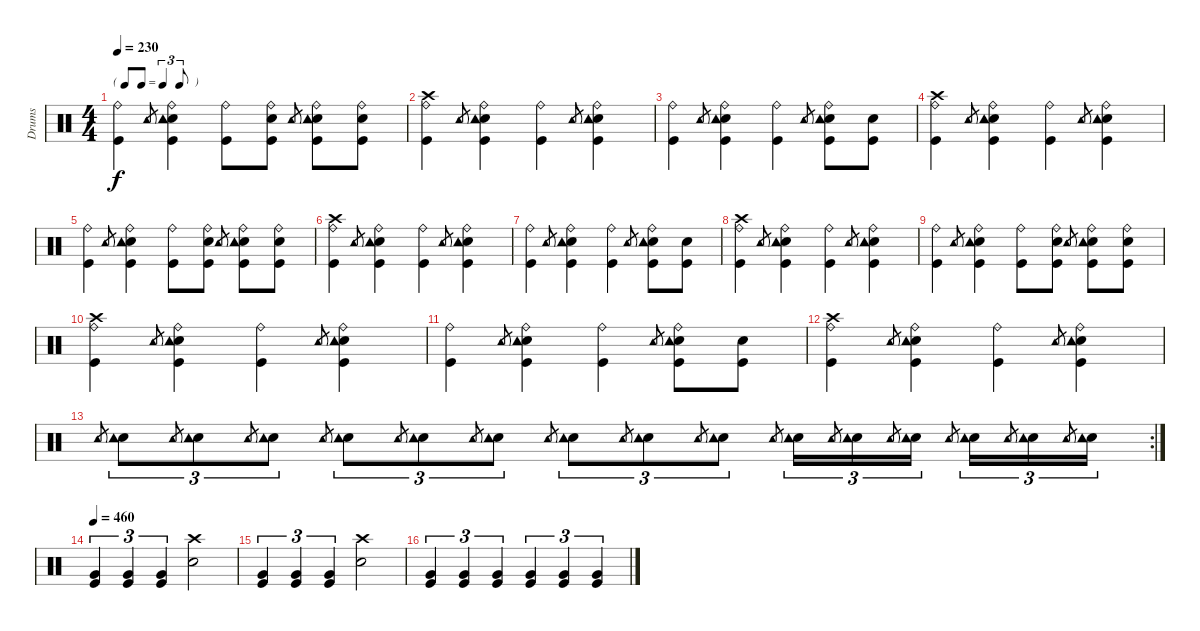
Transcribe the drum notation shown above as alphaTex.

\track ("Drums" "Drums") {instrument percussion}
\staff {score}
\articulation defaults
\ts (4 4)
\tf triplet8th
\tempo 230
\clef neutral
\ks c
("Ride (bell)" "Kick (hit)").4{dy f} "Tambourine (hit)".8{gr} ("Ride (bell)" "Electric Snare (hit)" "Kick (hit)" "Tambourine (hit)").4 ("Ride (bell)" "Kick (hit)").8 ("Ride (bell)" "Electric Snare (hit)" "Kick (hit)").8 "Tambourine (hit)".8{gr} ("Ride (bell)" "Electric Snare (hit)" "Kick (hit)" "Tambourine (hit)").8 ("Ride (bell)" "Electric Snare (hit)" "Kick (hit)").8 |
("Crash high (hit)" "Ride (bell)" "Kick (hit)").4 "Tambourine (hit)".8{gr} ("Ride (bell)" "Electric Snare (hit)" "Kick (hit)" "Tambourine (hit)").4 ("Ride (bell)" "Kick (hit)").4 "Tambourine (hit)".8{gr} ("Ride (bell)" "Electric Snare (hit)" "Kick (hit)" "Tambourine (hit)").4 |
("Ride (bell)" "Kick (hit)").4 "Tambourine (hit)".8{gr} ("Ride (bell)" "Electric Snare (hit)" "Kick (hit)" "Tambourine (hit)").4 ("Ride (bell)" "Kick (hit)").4 "Tambourine (hit)".8{gr} ("Ride (bell)" "Electric Snare (hit)" "Kick (hit)" "Tambourine (hit)").8 ("Electric Snare (hit)" "Kick (hit)").8 |
("Crash high (hit)" "Ride (bell)" "Kick (hit)").4 "Tambourine (hit)".8{gr} ("Ride (bell)" "Electric Snare (hit)" "Kick (hit)" "Tambourine (hit)").4 ("Ride (bell)" "Kick (hit)").4 "Tambourine (hit)".8{gr} ("Ride (bell)" "Electric Snare (hit)" "Kick (hit)" "Tambourine (hit)").4 |
("Ride (bell)" "Kick (hit)").4 "Tambourine (hit)".8{gr} ("Ride (bell)" "Electric Snare (hit)" "Kick (hit)" "Tambourine (hit)").4 ("Ride (bell)" "Kick (hit)").8 ("Ride (bell)" "Electric Snare (hit)" "Kick (hit)").8 "Tambourine (hit)".8{gr} ("Ride (bell)" "Electric Snare (hit)" "Kick (hit)" "Tambourine (hit)").8 ("Ride (bell)" "Electric Snare (hit)" "Kick (hit)").8 |
("Crash high (hit)" "Ride (bell)" "Kick (hit)").4 "Tambourine (hit)".8{gr} ("Ride (bell)" "Electric Snare (hit)" "Kick (hit)" "Tambourine (hit)").4 ("Ride (bell)" "Kick (hit)").4 "Tambourine (hit)".8{gr} ("Ride (bell)" "Electric Snare (hit)" "Kick (hit)" "Tambourine (hit)").4 |
("Ride (bell)" "Kick (hit)").4 "Tambourine (hit)".8{gr} ("Ride (bell)" "Electric Snare (hit)" "Kick (hit)" "Tambourine (hit)").4 ("Ride (bell)" "Kick (hit)").4 "Tambourine (hit)".8{gr} ("Ride (bell)" "Electric Snare (hit)" "Kick (hit)" "Tambourine (hit)").8 ("Electric Snare (hit)" "Kick (hit)").8 |
("Crash high (hit)" "Ride (bell)" "Kick (hit)").4 "Tambourine (hit)".8{gr} ("Ride (bell)" "Electric Snare (hit)" "Kick (hit)" "Tambourine (hit)").4 ("Ride (bell)" "Kick (hit)").4 "Tambourine (hit)".8{gr} ("Ride (bell)" "Electric Snare (hit)" "Kick (hit)" "Tambourine (hit)").4 |
("Ride (bell)" "Kick (hit)").4 "Tambourine (hit)".8{gr} ("Ride (bell)" "Electric Snare (hit)" "Kick (hit)" "Tambourine (hit)").4 ("Ride (bell)" "Kick (hit)").8 ("Ride (bell)" "Electric Snare (hit)" "Kick (hit)").8 "Tambourine (hit)".8{gr} ("Ride (bell)" "Electric Snare (hit)" "Kick (hit)" "Tambourine (hit)").8 ("Ride (bell)" "Electric Snare (hit)" "Kick (hit)").8 |
("Crash high (hit)" "Ride (bell)" "Kick (hit)").4 "Tambourine (hit)".8{gr} ("Ride (bell)" "Electric Snare (hit)" "Kick (hit)" "Tambourine (hit)").4 ("Ride (bell)" "Kick (hit)").4 "Tambourine (hit)".8{gr} ("Ride (bell)" "Electric Snare (hit)" "Kick (hit)" "Tambourine (hit)").4 |
("Ride (bell)" "Kick (hit)").4 "Tambourine (hit)".8{gr} ("Ride (bell)" "Electric Snare (hit)" "Kick (hit)" "Tambourine (hit)").4 ("Ride (bell)" "Kick (hit)").4 "Tambourine (hit)".8{gr} ("Ride (bell)" "Electric Snare (hit)" "Kick (hit)" "Tambourine (hit)").8 ("Electric Snare (hit)" "Kick (hit)").8 |
("Crash high (hit)" "Ride (bell)" "Kick (hit)").4 "Tambourine (hit)".8{gr} ("Ride (bell)" "Electric Snare (hit)" "Kick (hit)" "Tambourine (hit)").4 ("Ride (bell)" "Kick (hit)").4 "Tambourine (hit)".8{gr} ("Ride (bell)" "Electric Snare (hit)" "Kick (hit)" "Tambourine (hit)").4 |
\rc 2 "Tambourine (hit)".8{gr}
("Electric Snare (hit)" "Tambourine (hit)").8{tu (3 2)} "Tambourine (hit)".8{gr} ("Electric Snare (hit)" "Tambourine (hit)").8{tu (3 2)} "Tambourine (hit)".8{gr} ("Electric Snare (hit)" "Tambourine (hit)").8{tu (3 2)} "Tambourine (hit)".8{gr} ("Electric Snare (hit)" "Tambourine (hit)").8{tu (3 2)} "Tambourine (hit)".8{gr} ("Electric Snare (hit)" "Tambourine (hit)").8{tu (3 2)} "Tambourine (hit)".8{gr} ("Electric Snare (hit)" "Tambourine (hit)").8{tu (3 2)} "Tambourine (hit)".8{gr} ("Electric Snare (hit)" "Tambourine (hit)").8{tu (3 2)} "Tambourine (hit)".8{gr} ("Electric Snare (hit)" "Tambourine (hit)").8{tu (3 2)} "Tambourine (hit)".8{gr} ("Electric Snare (hit)" "Tambourine (hit)").8{tu (3 2)} "Tambourine (hit)".8{gr} ("Electric Snare (hit)" "Tambourine (hit)").16{tu (3 2)} "Tambourine (hit)".8{gr} ("Electric Snare (hit)" "Tambourine (hit)").16{tu (3 2)} "Tambourine (hit)".8{gr} ("Electric Snare (hit)" "Tambourine (hit)").16{tu (3 2)} "Tambourine (hit)".8{gr} ("Electric Snare (hit)" "Tambourine (hit)").16{tu (3 2)} "Tambourine (hit)".8{gr} ("Electric Snare (hit)" "Tambourine (hit)").16{tu (3 2)} "Tambourine (hit)".8{gr} ("Electric Snare (hit)" "Tambourine (hit)").16{tu (3 2)} |
\tempo 460
("Kick (hit)" "Very Low Tom (hit)").4{tu (3 2)} ("Kick (hit)" "Very Low Tom (hit)").4{tu (3 2)} ("Kick (hit)" "Very Low Tom (hit)").4{tu (3 2)} ("Electric Snare (hit)" "Crash high (hit)").2 |
("Kick (hit)" "Very Low Tom (hit)").4{tu (3 2)} ("Kick (hit)" "Very Low Tom (hit)").4{tu (3 2)} ("Kick (hit)" "Very Low Tom (hit)").4{tu (3 2)} ("Electric Snare (hit)" "Crash high (hit)").2 |
("Kick (hit)" "Very Low Tom (hit)").4{tu (3 2)} ("Kick (hit)" "Very Low Tom (hit)").4{tu (3 2)} ("Kick (hit)" "Very Low Tom (hit)").4{tu (3 2)} ("Kick (hit)" "Very Low Tom (hit)").4{tu (3 2)} ("Kick (hit)" "Very Low Tom (hit)").4{tu (3 2)} ("Kick (hit)" "Very Low Tom (hit)").4{tu (3 2)}
